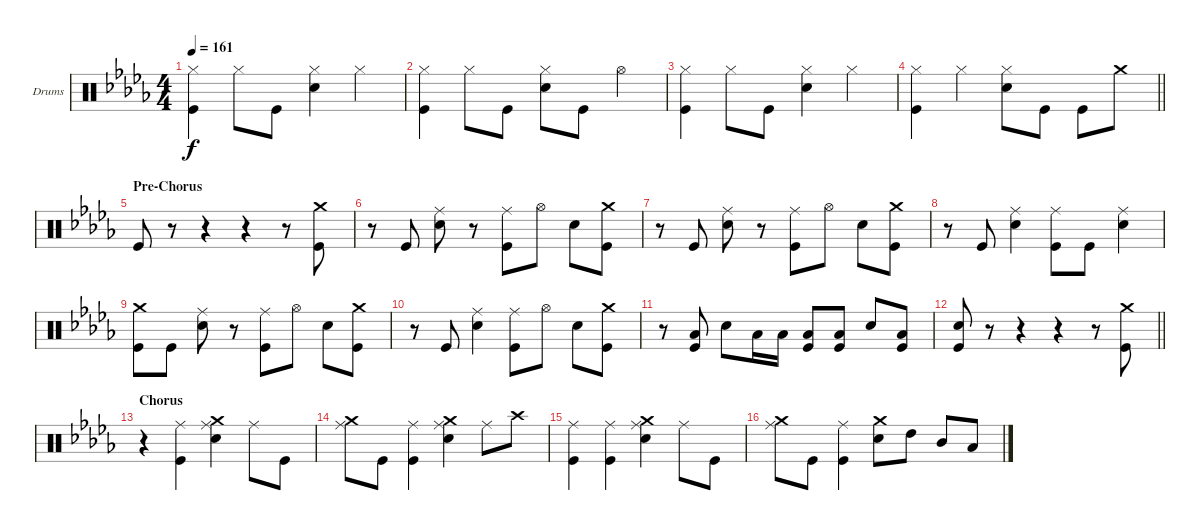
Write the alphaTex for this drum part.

\bracketExtendMode groupsimilarinstruments
\firstSystemTrackNameOrientation horizontal
\otherSystemsTrackNameOrientation horizontal
\track ("Drumkit" "Drums") {instrument percussion}
\staff {score}
\articulation defaults
\ts (4 4)
\tempo 161
\clef neutral
\ks db
("Hi-Hat (closed)" "Kick (hit)").4{dy f} "Hi-Hat (closed)".8 "Kick (hit)".8 ("Snare (hit) 2" "Hi-Hat (closed)").4 "Hi-Hat (closed)".4 |
("Hi-Hat (closed)" "Kick (hit)").4 "Hi-Hat (closed)".8 "Kick (hit)".8 ("Snare (hit) 2" "Hi-Hat (closed)").8 "Kick (hit)".8 "Hi-Hat (open)".4 |
("Hi-Hat (closed)" "Kick (hit)").4 "Hi-Hat (closed)".8 "Kick (hit)".8 ("Snare (hit) 2" "Hi-Hat (closed)").4 "Hi-Hat (closed)".4 |
\barLineRight lightlight
("Hi-Hat (closed)" "Kick (hit)").4 "Hi-Hat (closed)".4 ("Snare (hit) 2" "Hi-Hat (closed)").8 "Kick (hit)".8 "Kick (hit)".8 "Crash medium (hit)".8 |
\section ("" "Pre-Chorus")
"Kick (hit)".8 r.8 r.4 r.4 r.8 ("Crash medium (hit)" "Kick (hit)").8 |
r.8 "Kick (hit)".8 ("Ride (middle)" "Snare (hit) 2").8 r.8 ("Ride (middle)" "Kick (hit)").8 "Hi-Hat (open)".8 "Snare (hit) 2".8 ("Crash medium (hit)" "Kick (hit)").8 |
r.8 "Kick (hit)".8 ("Ride (middle)" "Snare (hit) 2").8 r.8 ("Ride (middle)" "Kick (hit)").8 "Hi-Hat (open)".8 "Snare (hit) 2".8 ("Crash medium (hit)" "Kick (hit)").8 |
r.8 "Kick (hit)".8 ("Ride (middle)" "Snare (hit) 2").4 ("Ride (middle)" "Kick (hit)").8 "Kick (hit)".8 ("Ride (middle)" "Snare (hit) 2").4 |
("Crash medium (hit)" "Kick (hit)").8 "Kick (hit)".8 ("Ride (middle)" "Snare (hit) 2").8 r.8 ("Ride (middle)" "Kick (hit)").8 "Hi-Hat (open)".8 "Snare (hit) 2".8 ("Crash medium (hit)" "Kick (hit)").8 |
r.8 "Kick (hit)".8 ("Ride (middle)" "Snare (hit) 2").4 ("Ride (middle)" "Kick (hit)").8 "Hi-Hat (open)".8 "Snare (hit) 2".8 ("Crash medium (hit)" "Kick (hit)").8 |
r.8 ("Low Tom (hit)" "Kick (hit)").8 "Snare (hit) 2".8 "Low Tom (hit)".16 "Low Tom (hit)".16 ("Low Tom (hit)" "Kick (hit)").8 ("Low Tom (hit)" "Kick (hit)").8 "Snare (hit) 2".8 ("Low Tom (hit)" "Kick (hit)").8 |
\barLineRight lightlight
("Kick (hit)" "Snare (hit) 2").8 r.8 r.4 r.4 r.8 ("Kick (hit)" "Crash medium (hit)").8 |
\section ("" "Chorus")
r.4 ("Kick (hit)" "Ride (middle)").4 ("Snare (hit) 2" "Crash medium (hit)" "Ride (middle)").4 "Ride (middle)".8 "Kick (hit)".8 |
("Crash medium (hit)" "Ride (middle)").8 "Kick (hit)".8 ("Kick (hit)" "Ride (middle)").4 ("Snare (hit) 2" "Crash medium (hit)" "Ride (middle)").4 "Ride (middle)".8 "Crash high (hit)".8 |
("Kick (hit)" "Ride (middle)").4 ("Kick (hit)" "Ride (middle)").4 ("Snare (hit) 2" "Crash medium (hit)" "Ride (middle)").4 "Ride (middle)".8 "Kick (hit)".8 |
("Crash medium (hit)" "Ride (middle)").8 "Kick (hit)".8 ("Kick (hit)" "Ride (middle)").4 ("Crash medium (hit)" "Snare (hit) 2").8 "High Tom (hit)".8 "Mid Tom (hit)".8 "Low Tom (hit)".8
